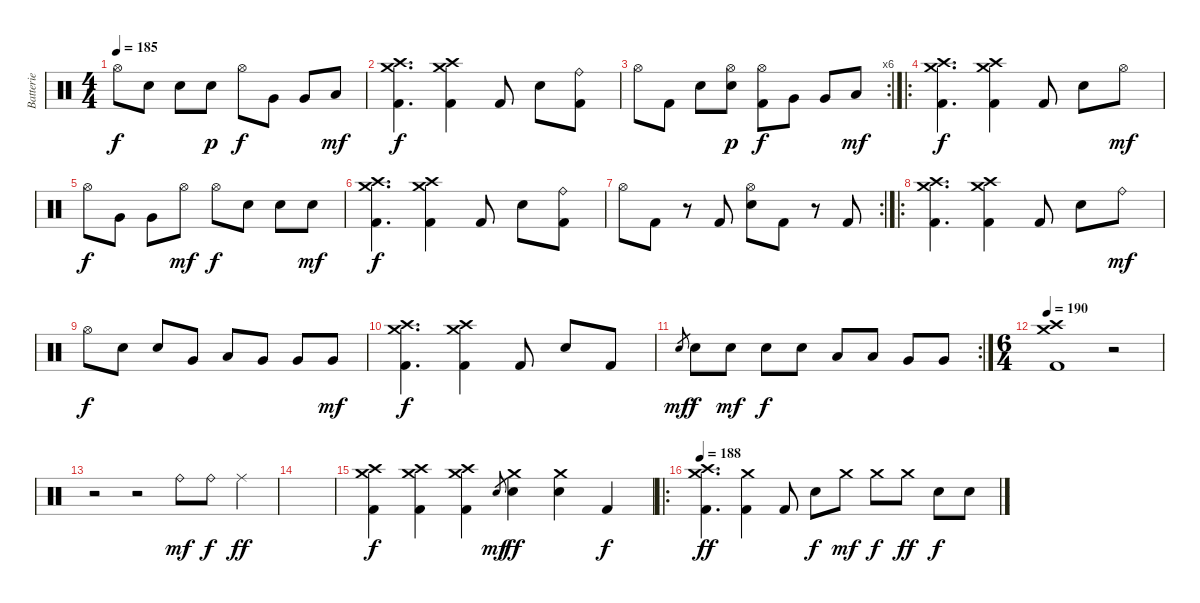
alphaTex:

\track ("Batterie" "Batterie") {instrument percussion}
\staff {score}
\articulation defaults
\ts (4 4)
\tempo 185
\clef neutral
\ks c "Hi-Hat (open)".8{dy f} "Electric Snare (hit)".8 "Electric Snare (hit)".8 "Electric Snare (hit)".8{dy p} "Hi-Hat (open)".8{dy f} "Very Low Tom (hit)".8 "Very Low Tom (hit)".8 "Low Floor Tom (hit)".8{dy mf}
|
("Crash medium (hit)" "Crash high (hit)" "Kick (hit) 2").4{d dy f} ("Crash medium (hit)" "Crash high (hit)" "Kick (hit) 2").4 "Kick (hit) 2".8 "Electric Snare (hit)".8 ("Ride (bell)" "Kick (hit) 2").8 |
\rc 6 "Hi-Hat (open)".8 "Kick (hit) 2".8 "Electric Snare (hit)".8
("Hi-Hat (open)" "Electric Snare (hit)").8{dy p} ("Hi-Hat (open)" "Kick (hit) 2").8{dy f} "Very Low Tom (hit)".8 "Very Low Tom (hit)".8 "Low Floor Tom (hit)".8{dy mf} |
\ro
("Crash medium (hit)" "Crash high (hit)" "Kick (hit) 2").4{d dy f} ("Crash medium (hit)" "Crash high (hit)" "Kick (hit) 2").4 "Kick (hit) 2".8 "Electric Snare (hit)".8 "Hi-Hat (open)".8{dy mf} |
"Hi-Hat (open)".8{dy f} "Very Low Tom (hit)".8 "Very Low Tom (hit)".8 "Hi-Hat (open)".8{dy mf} "Hi-Hat (open)".8{dy f} "Electric Snare (hit)".8 "Electric Snare (hit)".8 "Electric Snare (hit)".8{dy mf} |
("Crash medium (hit)" "Crash high (hit)" "Kick (hit) 2").4{d dy f} ("Crash medium (hit)" "Crash high (hit)" "Kick (hit) 2").4 "Kick (hit) 2".8 "Electric Snare (hit)".8 ("Ride (bell)" "Kick (hit) 2").8 |
\rc 2 "Hi-Hat (open)".8 "Kick (hit) 2".8
r.8 "Kick (hit) 2".8 ("Hi-Hat (open)" "Electric Snare (hit)").8 "Kick (hit) 2".8 r.8 "Kick (hit) 2".8 |
\ro
("Crash medium (hit)" "Crash high (hit)" "Kick (hit) 2").4{d} ("Crash medium (hit)" "Crash high (hit)" "Kick (hit) 2").4 "Kick (hit) 2".8 "Electric Snare (hit)".8 "Ride (bell)".8{dy mf} |
"Hi-Hat (open)".8{dy f} "Electric Snare (hit)".8 "Electric Snare (hit)".8 "Very Low Tom (hit)".8 "Low Tom (hit)".8 "Very Low Tom (hit)".8 "Very Low Tom (hit)".8 "Very Low Tom (hit)".8{dy mf} |
("Crash medium (hit)" "Crash high (hit)" "Kick (hit) 2").4{d dy f} ("Crash medium (hit)" "Crash high (hit)" "Kick (hit) 2").4 "Kick (hit) 2".8 "Electric Snare (hit)".8 "Kick (hit) 2".8 |
\rc 2 "Electric Snare (hit)".8{gr dy mf} "Electric Snare (hit)".8{dy f} "Electric Snare (hit)".8{dy mf} "Electric Snare (hit)".8{dy f} "Electric Snare (hit)".8 "Low Tom (hit)".8 "Low Tom (hit)".8 "Very Low Tom (hit)".8 "Very Low Tom (hit)".8
|
\ts (6 4)
\tempo 190
("Crash high (hit)" "Crash medium (hit)" "Kick (hit) 2").1 r.2 |
r.2 r.2 "Ride (bell)".8{dy mf} "Ride (bell)".8{dy f} "Ride (middle)".4{dy ff} |
|
("Crash high (hit)" "Crash medium (hit)" "Kick (hit) 2").4{dy f} ("Crash high (hit)" "Crash medium (hit)" "Kick (hit) 2").4 ("Crash high (hit)" "Crash medium (hit)" "Kick (hit) 2").4 "Electric Snare (hit)".8{gr dy mf} ("Crash medium (hit)" "Electric Snare (hit)").4{dy ff} ("Crash medium (hit)" "Electric Snare (hit)").4 "Kick (hit) 2".4{dy f} |
\ro
\tempo 188
("Crash high (hit)" "Crash medium (hit)" "Kick (hit) 2").4{d dy ff} ("Crash medium (hit)" "Kick (hit) 2").4 "Kick (hit) 2".8 "Electric Snare (hit)".8{dy f} "Crash medium (hit)".8{dy mf} "Crash medium (hit)".8{dy f} "Crash medium (hit)".8{dy ff} "Electric Snare (hit)".8{dy f} "Electric Snare (hit)".8
